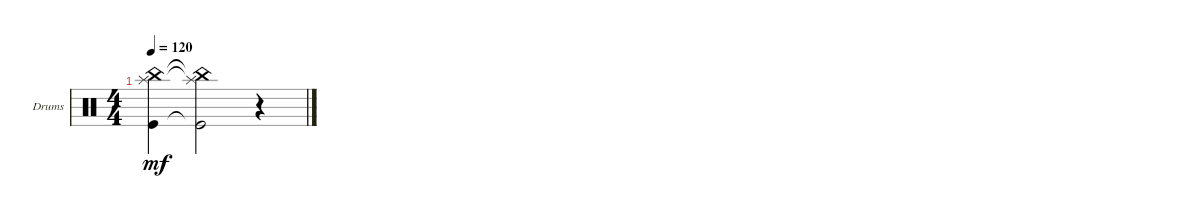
\defaultSystemsLayout 4
\bracketExtendMode groupsimilarinstruments
\firstSystemTrackNameOrientation horizontal
\otherSystemsTrackNameOrientation horizontal
\track ("Drumkit" "Drums") {instrument percussion}
\staff {score}
\articulation defaults
\ts (4 4)
\tempo 120
\clef neutral
\ks c
("Splash (hit)"{t} "Kick (hit)"{t} "China (hit)"{t}).4{dy mf} ("Splash (hit)"{t} "Kick (hit)"{t} "China (hit)"{t}).2 r.4
